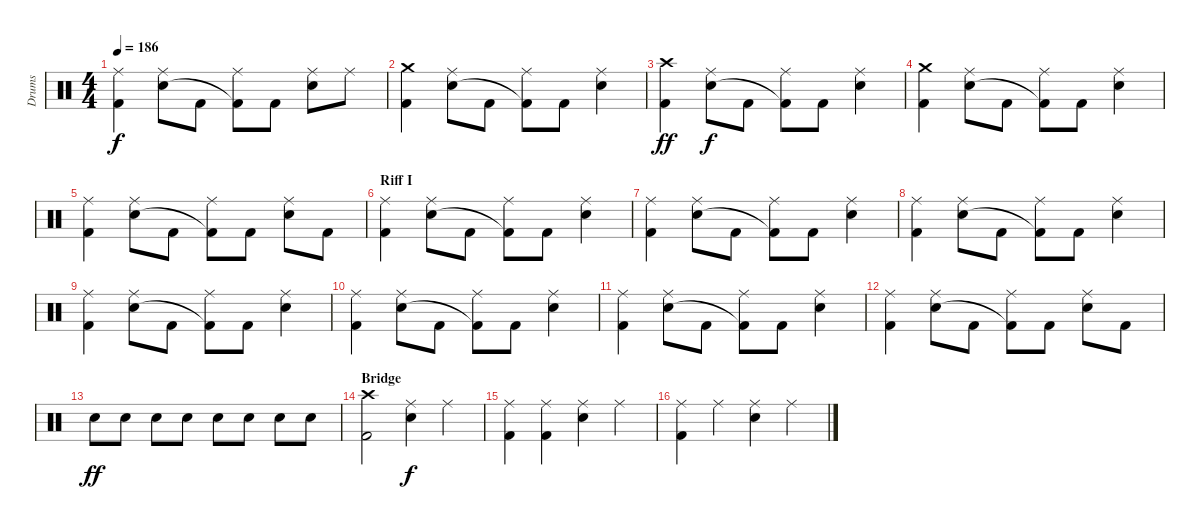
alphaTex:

\track ("Drums" "Drums") {instrument percussion}
\staff {score}
\articulation defaults
\ts (4 4)
\tempo 186
\clef neutral
\ks c
("Ride (middle)" "Kick (hit) 2").4{dy f} ("Ride (middle)" "Electric Snare (hit)").8 "Kick (hit) 2".8 ("Ride (middle)" "Kick (hit) 2"{t}).8 "Kick (hit) 2".8 ("Ride (middle)" "Electric Snare (hit)").8 "Ride (middle)".8 |
("Crash medium (hit)" "Kick (hit) 2").4 ("Ride (middle)" "Electric Snare (hit)").8 "Kick (hit) 2".8 ("Ride (middle)" "Kick (hit) 2"{t}).8 "Kick (hit) 2".8 ("Ride (middle)" "Electric Snare (hit)").4 |
("Crash high (hit)" "Kick (hit) 2").4{dy ff} ("Ride (middle)" "Electric Snare (hit)").8{dy f} "Kick (hit) 2".8 ("Ride (middle)" "Kick (hit) 2"{t}).8 "Kick (hit) 2".8 ("Ride (middle)" "Electric Snare (hit)").4 |
("Crash medium (hit)" "Kick (hit) 2").4 ("Ride (middle)" "Electric Snare (hit)").8 "Kick (hit) 2".8 ("Ride (middle)" "Kick (hit) 2"{t}).8 "Kick (hit) 2".8 ("Ride (middle)" "Electric Snare (hit)").4 |
("Ride (middle)" "Kick (hit) 2").4 ("Ride (middle)" "Electric Snare (hit)").8 "Kick (hit) 2".8 ("Ride (middle)" "Kick (hit) 2"{t}).8 "Kick (hit) 2".8 ("Ride (middle)" "Electric Snare (hit)").8 "Kick (hit) 2".8 |
\section ("" "Riff I")
("Ride (middle)" "Kick (hit) 2").4 ("Ride (middle)" "Electric Snare (hit)").8 "Kick (hit) 2".8 ("Ride (middle)" "Kick (hit) 2"{t}).8 "Kick (hit) 2".8 ("Ride (middle)" "Electric Snare (hit)").4 |
("Ride (middle)" "Kick (hit) 2").4 ("Ride (middle)" "Electric Snare (hit)").8 "Kick (hit) 2".8 ("Ride (middle)" "Kick (hit) 2"{t}).8 "Kick (hit) 2".8 ("Ride (middle)" "Electric Snare (hit)").4 |
("Ride (middle)" "Kick (hit) 2").4 ("Ride (middle)" "Electric Snare (hit)").8 "Kick (hit) 2".8 ("Ride (middle)" "Kick (hit) 2"{t}).8 "Kick (hit) 2".8 ("Ride (middle)" "Electric Snare (hit)").4 |
("Ride (middle)" "Kick (hit) 2").4 ("Ride (middle)" "Electric Snare (hit)").8 "Kick (hit) 2".8 ("Ride (middle)" "Kick (hit) 2"{t}).8 "Kick (hit) 2".8 ("Ride (middle)" "Electric Snare (hit)").4 |
("Ride (middle)" "Kick (hit) 2").4 ("Ride (middle)" "Electric Snare (hit)").8 "Kick (hit) 2".8 ("Ride (middle)" "Kick (hit) 2"{t}).8 "Kick (hit) 2".8 ("Ride (middle)" "Electric Snare (hit)").4 |
("Ride (middle)" "Kick (hit) 2").4 ("Ride (middle)" "Electric Snare (hit)").8 "Kick (hit) 2".8 ("Ride (middle)" "Kick (hit) 2"{t}).8 "Kick (hit) 2".8 ("Ride (middle)" "Electric Snare (hit)").4 |
("Ride (middle)" "Kick (hit) 2").4 ("Ride (middle)" "Electric Snare (hit)").8 "Kick (hit) 2".8 ("Ride (middle)" "Kick (hit) 2"{t}).8 "Kick (hit) 2".8 ("Ride (middle)" "Electric Snare (hit)").8 "Kick (hit) 2".8 |
"Electric Snare (hit)".8{dy ff} "Electric Snare (hit)".8 "Electric Snare (hit)".8 "Electric Snare (hit)".8 "Electric Snare (hit)".8 "Electric Snare (hit)".8 "Electric Snare (hit)".8 "Electric Snare (hit)".8 |
\section ("" "Bridge")
("Crash high (hit)" "Kick (hit) 2").2 ("Ride (middle)" "Electric Snare (hit)").4{dy f} "Ride (middle)".4 |
("Ride (middle)" "Kick (hit) 2").4 ("Ride (middle)" "Kick (hit) 2").4 ("Ride (middle)" "Electric Snare (hit)").4 "Ride (middle)".4 |
("Ride (middle)" "Kick (hit) 2").4 "Ride (middle)".4 ("Ride (middle)" "Electric Snare (hit)").4 "Ride (middle)".4
